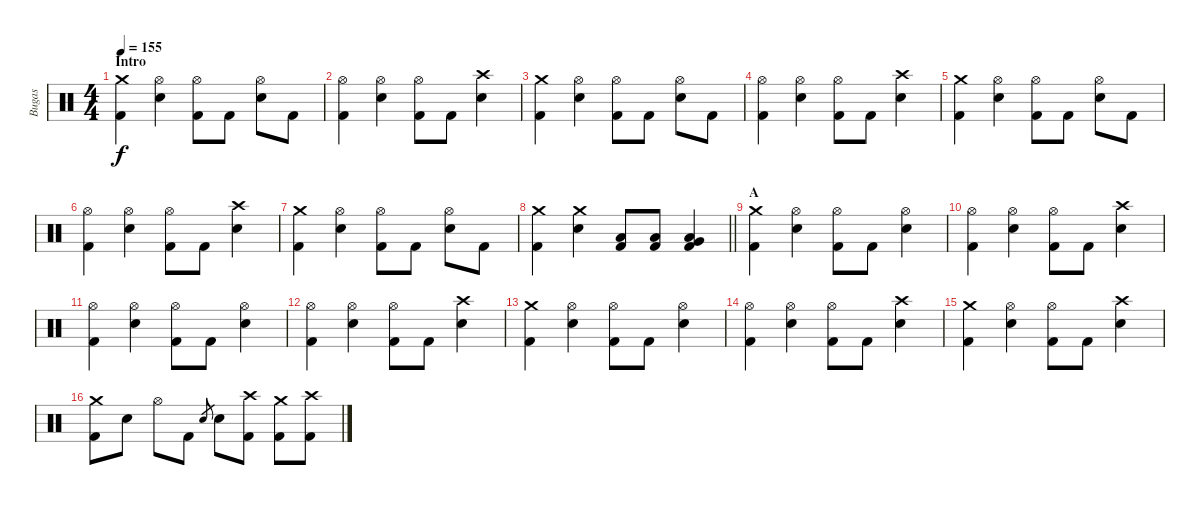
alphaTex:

\track ("Bugas" "Bugas") {instrument percussion}
\staff {score}
\articulation defaults
\ts (4 4)
\section ("" "Intro")
\tempo 155
\clef neutral
\ks c
("Crash medium (hit)" "Kick (hit) 2").4{dy f} ("Hi-Hat (open)" "Electric Snare (hit)").4 ("Hi-Hat (open)" "Kick (hit) 2").8 "Kick (hit) 2".8 ("Hi-Hat (open)" "Electric Snare (hit)").8 "Kick (hit) 2".8 |
("Hi-Hat (open)" "Kick (hit) 2").4 ("Hi-Hat (open)" "Electric Snare (hit)").4 ("Hi-Hat (open)" "Kick (hit) 2").8 "Kick (hit) 2".8 ("Crash high (hit)" "Electric Snare (hit)").4 |
("Crash medium (hit)" "Kick (hit) 2").4 ("Hi-Hat (open)" "Electric Snare (hit)").4 ("Hi-Hat (open)" "Kick (hit) 2").8 "Kick (hit) 2".8 ("Hi-Hat (open)" "Electric Snare (hit)").8 "Kick (hit) 2".8 |
("Hi-Hat (open)" "Kick (hit) 2").4 ("Hi-Hat (open)" "Electric Snare (hit)").4 ("Hi-Hat (open)" "Kick (hit) 2").8 "Kick (hit) 2".8 ("Crash high (hit)" "Electric Snare (hit)").4 |
("Crash medium (hit)" "Kick (hit) 2").4 ("Hi-Hat (open)" "Electric Snare (hit)").4 ("Hi-Hat (open)" "Kick (hit) 2").8 "Kick (hit) 2".8 ("Hi-Hat (open)" "Electric Snare (hit)").8 "Kick (hit) 2".8 |
("Hi-Hat (open)" "Kick (hit) 2").4 ("Hi-Hat (open)" "Electric Snare (hit)").4 ("Hi-Hat (open)" "Kick (hit) 2").8 "Kick (hit) 2".8 ("Crash high (hit)" "Electric Snare (hit)").4 |
("Crash medium (hit)" "Kick (hit) 2").4 ("Hi-Hat (open)" "Electric Snare (hit)").4 ("Hi-Hat (open)" "Kick (hit) 2").8 "Kick (hit) 2".8 ("Hi-Hat (open)" "Electric Snare (hit)").8 "Kick (hit) 2".8 |
\barLineRight lightlight
("Crash medium (hit)" "Kick (hit) 2").4 ("Crash medium (hit)" "Electric Snare (hit)").4 ("Low Tom (hit)" "Kick (hit) 2").8 ("Low Tom (hit)" "Kick (hit) 2").8 ("Very Low Tom (hit)" "Low Tom (hit)" "Kick (hit) 2").4 |
\section ("" "A")
("Crash medium (hit)" "Kick (hit) 2").4 ("Hi-Hat (open)" "Electric Snare (hit)").4 ("Hi-Hat (open)" "Kick (hit) 2").8 "Kick (hit) 2".8 ("Hi-Hat (open)" "Electric Snare (hit)").4 |
("Hi-Hat (open)" "Kick (hit) 2").4 ("Hi-Hat (open)" "Electric Snare (hit)").4 ("Hi-Hat (open)" "Kick (hit) 2").8 "Kick (hit) 2".8 ("Crash high (hit)" "Electric Snare (hit)").4 |
("Hi-Hat (open)" "Kick (hit) 2").4 ("Hi-Hat (open)" "Electric Snare (hit)").4 ("Hi-Hat (open)" "Kick (hit) 2").8 "Kick (hit) 2".8 ("Hi-Hat (open)" "Electric Snare (hit)").4 |
("Hi-Hat (open)" "Kick (hit) 2").4 ("Hi-Hat (open)" "Electric Snare (hit)").4 ("Hi-Hat (open)" "Kick (hit) 2").8 "Kick (hit) 2".8 ("Crash high (hit)" "Electric Snare (hit)").4 |
("Crash medium (hit)" "Kick (hit) 2").4 ("Hi-Hat (open)" "Electric Snare (hit)").4 ("Hi-Hat (open)" "Kick (hit) 2").8 "Kick (hit) 2".8 ("Hi-Hat (open)" "Electric Snare (hit)").4 |
("Hi-Hat (open)" "Kick (hit) 2").4 ("Hi-Hat (open)" "Electric Snare (hit)").4 ("Hi-Hat (open)" "Kick (hit) 2").8 "Kick (hit) 2".8 ("Crash high (hit)" "Electric Snare (hit)").4 |
("Crash medium (hit)" "Kick (hit) 2").4 ("Hi-Hat (open)" "Electric Snare (hit)").4 ("Hi-Hat (open)" "Kick (hit) 2").8 "Kick (hit) 2".8 ("Crash high (hit)" "Electric Snare (hit)").4 |
("Crash medium (hit)" "Kick (hit) 2").8 "Electric Snare (hit)".8 "Hi-Hat (open)".8 "Kick (hit) 2".8 "Electric Snare (hit)".8{gr} "Electric Snare (hit)".8 ("Crash high (hit)" "Kick (hit) 2").8 ("Crash medium (hit)" "Kick (hit) 2").8 ("Crash high (hit)" "Kick (hit) 2").8
